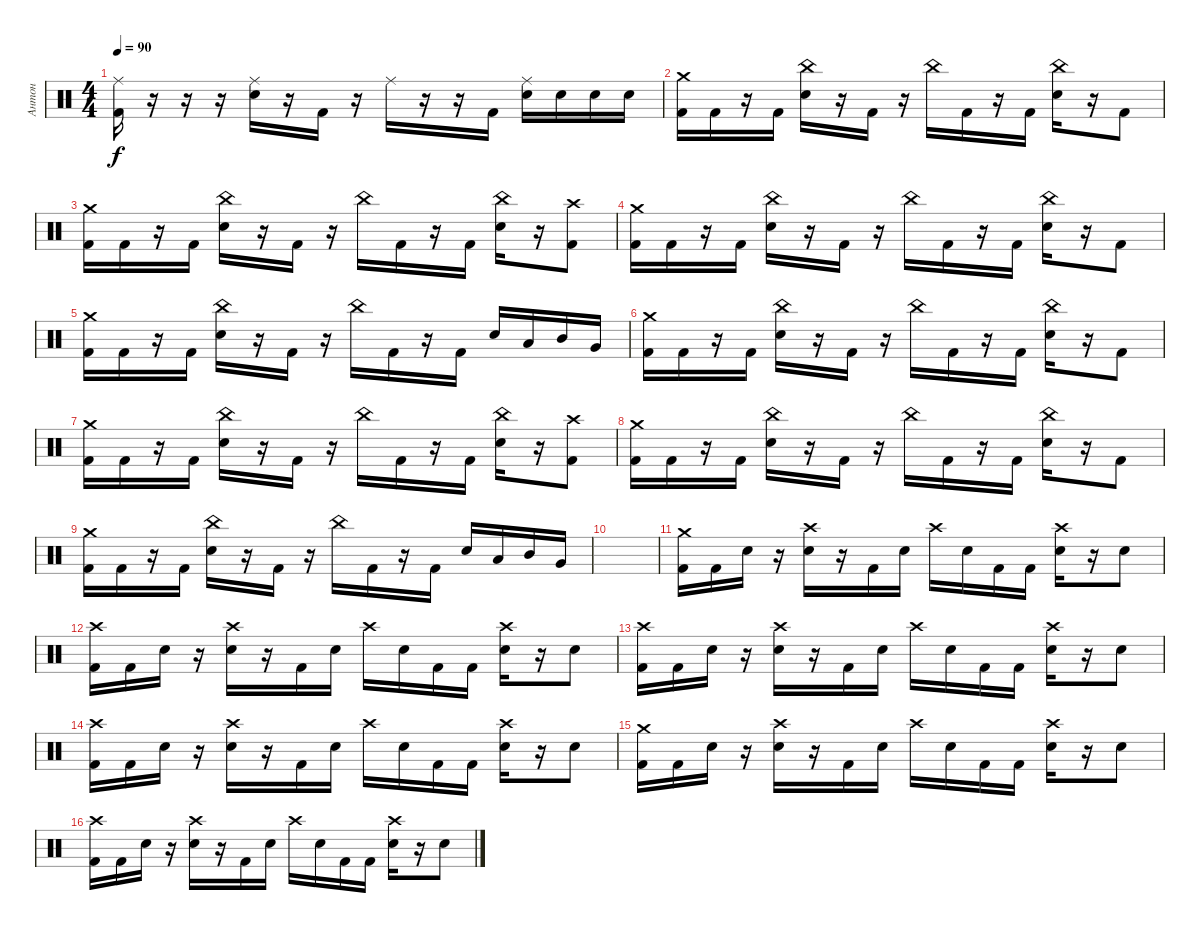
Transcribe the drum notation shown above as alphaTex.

\track ("Антон" "Антон") {instrument percussion}
\staff {score}
\articulation defaults
\ts (4 4)
\tempo 90
\clef neutral
\ks c
("Ride (middle)" "Kick (hit) 2").16{dy f} r.16 r.16 r.16 ("Ride (middle)" "Electric Snare (hit)").16 r.16 "Kick (hit) 2".16 r.16 "Ride (middle)".16 r.16 r.16 "Kick (hit) 2".16 ("Ride (middle)" "Electric Snare (hit)").16 "Electric Snare (hit)".16 "Electric Snare (hit)".16 "Electric Snare (hit)".16 |
("Crash medium (hit)" "Kick (hit) 2").16 "Kick (hit) 2".16 r.16 "Kick (hit) 2".16 ("China (hit)" "Electric Snare (hit)").16 r.16 "Kick (hit) 2".16 r.16 "China (hit)".16 "Kick (hit) 2".16 r.16 "Kick (hit) 2".16 ("China (hit)" "Electric Snare (hit)").16 r.16 "Kick (hit) 2".8 |
("Crash medium (hit)" "Kick (hit) 2").16 "Kick (hit) 2".16 r.16 "Kick (hit) 2".16 ("China (hit)" "Electric Snare (hit)").16 r.16 "Kick (hit) 2".16 r.16 "China (hit)".16 "Kick (hit) 2".16 r.16 "Kick (hit) 2".16 ("China (hit)" "Electric Snare (hit)").16 r.16 ("Crash high (hit)" "Kick (hit) 2").8 |
("Crash medium (hit)" "Kick (hit) 2").16 "Kick (hit) 2".16 r.16 "Kick (hit) 2".16 ("China (hit)" "Electric Snare (hit)").16 r.16 "Kick (hit) 2".16 r.16 "China (hit)".16 "Kick (hit) 2".16 r.16 "Kick (hit) 2".16 ("China (hit)" "Electric Snare (hit)").16 r.16 "Kick (hit) 2".8 |
("Crash medium (hit)" "Kick (hit) 2").16 "Kick (hit) 2".16 r.16 "Kick (hit) 2".16 ("China (hit)" "Electric Snare (hit)").16 r.16 "Kick (hit) 2".16 r.16 "China (hit)".16 "Kick (hit) 2".16 r.16 "Kick (hit) 2".16 "Electric Snare (hit)".16 "Low Tom (hit)".16 "Mid Tom (hit)".16 "Very Low Tom (hit)".16 |
("Crash medium (hit)" "Kick (hit) 2").16 "Kick (hit) 2".16 r.16 "Kick (hit) 2".16 ("China (hit)" "Electric Snare (hit)").16 r.16 "Kick (hit) 2".16 r.16 "China (hit)".16 "Kick (hit) 2".16 r.16 "Kick (hit) 2".16 ("China (hit)" "Electric Snare (hit)").16 r.16 "Kick (hit) 2".8 |
("Crash medium (hit)" "Kick (hit) 2").16 "Kick (hit) 2".16 r.16 "Kick (hit) 2".16 ("China (hit)" "Electric Snare (hit)").16 r.16 "Kick (hit) 2".16 r.16 "China (hit)".16 "Kick (hit) 2".16 r.16 "Kick (hit) 2".16 ("China (hit)" "Electric Snare (hit)").16 r.16 ("Crash high (hit)" "Kick (hit) 2").8 |
("Crash medium (hit)" "Kick (hit) 2").16 "Kick (hit) 2".16 r.16 "Kick (hit) 2".16 ("China (hit)" "Electric Snare (hit)").16 r.16 "Kick (hit) 2".16 r.16 "China (hit)".16 "Kick (hit) 2".16 r.16 "Kick (hit) 2".16 ("China (hit)" "Electric Snare (hit)").16 r.16 "Kick (hit) 2".8 |
("Crash medium (hit)" "Kick (hit) 2").16 "Kick (hit) 2".16 r.16 "Kick (hit) 2".16 ("China (hit)" "Electric Snare (hit)").16 r.16 "Kick (hit) 2".16 r.16 "China (hit)".16 "Kick (hit) 2".16 r.16 "Kick (hit) 2".16 "Electric Snare (hit)".16 "Low Tom (hit)".16 "Mid Tom (hit)".16 "Very Low Tom (hit)".16 |
|
("Crash medium (hit)" "Kick (hit) 2").16 "Kick (hit) 2".16 "Electric Snare (hit)".16 r.16 ("Crash high (hit)" "Electric Snare (hit)").16 r.16 "Kick (hit) 2".16 "Electric Snare (hit)".16 "Crash high (hit)".16 "Electric Snare (hit)".16 "Kick (hit) 2".16 "Kick (hit) 2".16 ("Crash high (hit)" "Electric Snare (hit)").16 r.16 "Electric Snare (hit)".8 |
("Crash high (hit)" "Kick (hit) 2").16 "Kick (hit) 2".16 "Electric Snare (hit)".16 r.16 ("Crash high (hit)" "Electric Snare (hit)").16 r.16 "Kick (hit) 2".16 "Electric Snare (hit)".16 "Crash high (hit)".16 "Electric Snare (hit)".16 "Kick (hit) 2".16 "Kick (hit) 2".16 ("Crash high (hit)" "Electric Snare (hit)").16 r.16 "Electric Snare (hit)".8 |
("Crash high (hit)" "Kick (hit) 2").16 "Kick (hit) 2".16 "Electric Snare (hit)".16 r.16 ("Crash high (hit)" "Electric Snare (hit)").16 r.16 "Kick (hit) 2".16 "Electric Snare (hit)".16 "Crash high (hit)".16 "Electric Snare (hit)".16 "Kick (hit) 2".16 "Kick (hit) 2".16 ("Crash high (hit)" "Electric Snare (hit)").16 r.16 "Electric Snare (hit)".8 |
("Crash high (hit)" "Kick (hit) 2").16 "Kick (hit) 2".16 "Electric Snare (hit)".16 r.16 ("Crash high (hit)" "Electric Snare (hit)").16 r.16 "Kick (hit) 2".16 "Electric Snare (hit)".16 "Crash high (hit)".16 "Electric Snare (hit)".16 "Kick (hit) 2".16 "Kick (hit) 2".16 ("Crash high (hit)" "Electric Snare (hit)").16 r.16 "Electric Snare (hit)".8 |
("Crash medium (hit)" "Kick (hit) 2").16 "Kick (hit) 2".16 "Electric Snare (hit)".16 r.16 ("Crash high (hit)" "Electric Snare (hit)").16 r.16 "Kick (hit) 2".16 "Electric Snare (hit)".16 "Crash high (hit)".16 "Electric Snare (hit)".16 "Kick (hit) 2".16 "Kick (hit) 2".16 ("Crash high (hit)" "Electric Snare (hit)").16 r.16 "Electric Snare (hit)".8 |
("Crash high (hit)" "Kick (hit) 2").16 "Kick (hit) 2".16 "Electric Snare (hit)".16 r.16 ("Crash high (hit)" "Electric Snare (hit)").16 r.16 "Kick (hit) 2".16 "Electric Snare (hit)".16 "Crash high (hit)".16 "Electric Snare (hit)".16 "Kick (hit) 2".16 "Kick (hit) 2".16 ("Crash high (hit)" "Electric Snare (hit)").16 r.16 "Electric Snare (hit)".8
